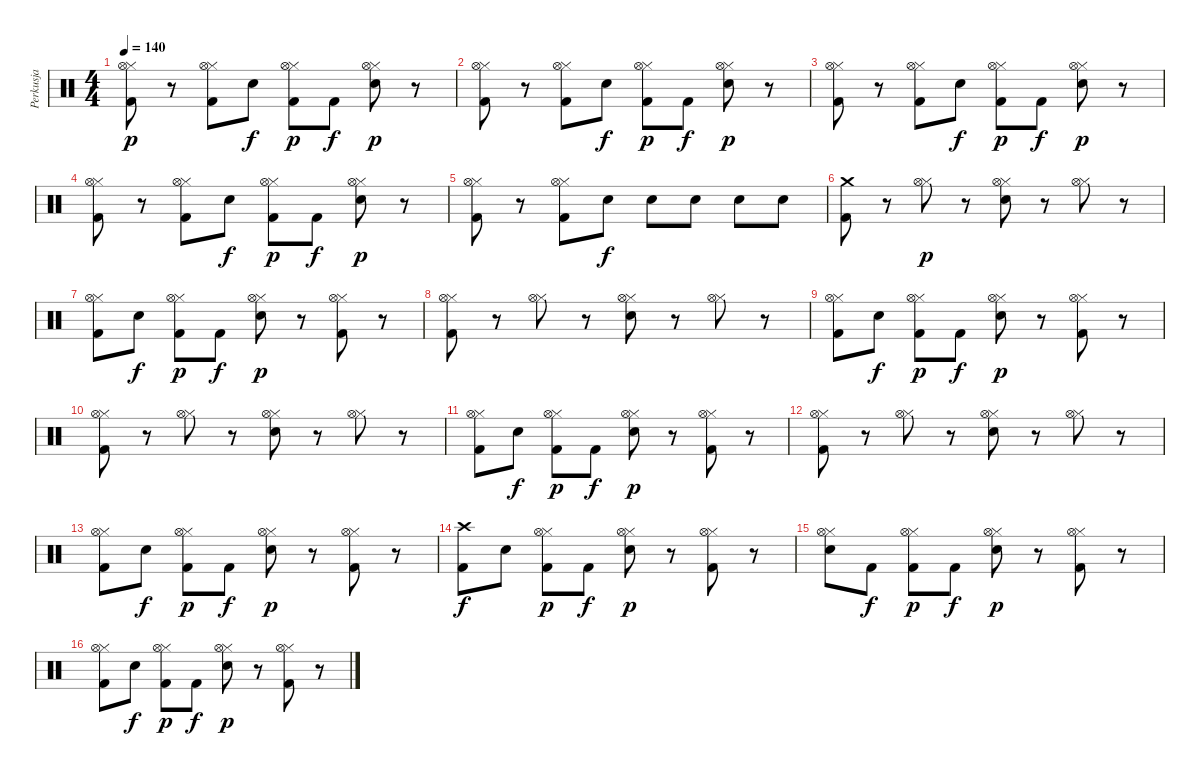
\track ("Perkusja" "Perkusja") {instrument percussion}
\staff {score}
\articulation defaults
\ts (4 4)
\tempo 140
\clef neutral
\ks c
("Kick (hit) 2" "Hi-Hat (closed)" "Hi-Hat (open)").8{dy p} r.8 ("Kick (hit) 2" "Hi-Hat (closed)" "Hi-Hat (open)").8 "Electric Snare (hit)".8{dy f} ("Kick (hit) 2" "Hi-Hat (closed)" "Hi-Hat (open)").8{dy p} "Kick (hit) 2".8{dy f} ("Electric Snare (hit)" "Hi-Hat (closed)" "Hi-Hat (open)").8{dy p} r.8 |
("Kick (hit) 2" "Hi-Hat (closed)" "Hi-Hat (open)").8 r.8 ("Kick (hit) 2" "Hi-Hat (closed)" "Hi-Hat (open)").8 "Electric Snare (hit)".8{dy f} ("Kick (hit) 2" "Hi-Hat (closed)" "Hi-Hat (open)").8{dy p} "Kick (hit) 2".8{dy f} ("Electric Snare (hit)" "Hi-Hat (closed)" "Hi-Hat (open)").8{dy p} r.8 |
("Kick (hit) 2" "Hi-Hat (closed)" "Hi-Hat (open)").8 r.8 ("Kick (hit) 2" "Hi-Hat (closed)" "Hi-Hat (open)").8 "Electric Snare (hit)".8{dy f} ("Kick (hit) 2" "Hi-Hat (closed)" "Hi-Hat (open)").8{dy p} "Kick (hit) 2".8{dy f} ("Electric Snare (hit)" "Hi-Hat (closed)" "Hi-Hat (open)").8{dy p} r.8 |
("Kick (hit) 2" "Hi-Hat (closed)" "Hi-Hat (open)").8 r.8 ("Kick (hit) 2" "Hi-Hat (closed)" "Hi-Hat (open)").8 "Electric Snare (hit)".8{dy f} ("Kick (hit) 2" "Hi-Hat (closed)" "Hi-Hat (open)").8{dy p} "Kick (hit) 2".8{dy f} ("Electric Snare (hit)" "Hi-Hat (closed)" "Hi-Hat (open)").8{dy p} r.8 |
("Kick (hit) 2" "Hi-Hat (closed)" "Hi-Hat (open)").8 r.8 ("Kick (hit) 2" "Hi-Hat (closed)" "Hi-Hat (open)").8 "Electric Snare (hit)".8{dy f} "Electric Snare (hit)".8 "Electric Snare (hit)".8 "Electric Snare (hit)".8 "Electric Snare (hit)".8 |
("Kick (hit) 2" "Crash medium (hit)").8 r.8 ("Hi-Hat (closed)" "Hi-Hat (open)").8{dy p} r.8 ("Electric Snare (hit)" "Hi-Hat (closed)" "Hi-Hat (open)").8 r.8 ("Hi-Hat (closed)" "Hi-Hat (open)").8 r.8 |
("Kick (hit) 2" "Hi-Hat (closed)" "Hi-Hat (open)").8 "Electric Snare (hit)".8{dy f} ("Kick (hit) 2" "Hi-Hat (closed)" "Hi-Hat (open)").8{dy p} "Kick (hit) 2".8{dy f} ("Electric Snare (hit)" "Hi-Hat (closed)" "Hi-Hat (open)").8{dy p} r.8 ("Kick (hit) 2" "Hi-Hat (closed)" "Hi-Hat (open)").8 r.8 |
("Kick (hit) 2" "Hi-Hat (closed)" "Hi-Hat (open)").8 r.8 ("Hi-Hat (closed)" "Hi-Hat (open)").8 r.8 ("Electric Snare (hit)" "Hi-Hat (closed)" "Hi-Hat (open)").8 r.8 ("Hi-Hat (closed)" "Hi-Hat (open)").8 r.8 |
("Kick (hit) 2" "Hi-Hat (closed)" "Hi-Hat (open)").8 "Electric Snare (hit)".8{dy f} ("Kick (hit) 2" "Hi-Hat (closed)" "Hi-Hat (open)").8{dy p} "Kick (hit) 2".8{dy f} ("Electric Snare (hit)" "Hi-Hat (closed)" "Hi-Hat (open)").8{dy p} r.8 ("Kick (hit) 2" "Hi-Hat (closed)" "Hi-Hat (open)").8 r.8 |
("Kick (hit) 2" "Hi-Hat (closed)" "Hi-Hat (open)").8 r.8 ("Hi-Hat (closed)" "Hi-Hat (open)").8 r.8 ("Electric Snare (hit)" "Hi-Hat (closed)" "Hi-Hat (open)").8 r.8 ("Hi-Hat (closed)" "Hi-Hat (open)").8 r.8 |
("Kick (hit) 2" "Hi-Hat (closed)" "Hi-Hat (open)").8 "Electric Snare (hit)".8{dy f} ("Kick (hit) 2" "Hi-Hat (closed)" "Hi-Hat (open)").8{dy p} "Kick (hit) 2".8{dy f} ("Electric Snare (hit)" "Hi-Hat (closed)" "Hi-Hat (open)").8{dy p} r.8 ("Kick (hit) 2" "Hi-Hat (closed)" "Hi-Hat (open)").8 r.8 |
("Kick (hit) 2" "Hi-Hat (closed)" "Hi-Hat (open)").8 r.8 ("Hi-Hat (closed)" "Hi-Hat (open)").8 r.8 ("Electric Snare (hit)" "Hi-Hat (closed)" "Hi-Hat (open)").8 r.8 ("Hi-Hat (closed)" "Hi-Hat (open)").8 r.8 |
("Kick (hit) 2" "Hi-Hat (closed)" "Hi-Hat (open)").8 "Electric Snare (hit)".8{dy f} ("Kick (hit) 2" "Hi-Hat (closed)" "Hi-Hat (open)").8{dy p} "Kick (hit) 2".8{dy f} ("Electric Snare (hit)" "Hi-Hat (closed)" "Hi-Hat (open)").8{dy p} r.8 ("Kick (hit) 2" "Hi-Hat (closed)" "Hi-Hat (open)").8 r.8 |
("Kick (hit) 2" "Crash high (hit)").8{dy f} "Electric Snare (hit)".8 ("Kick (hit) 2" "Hi-Hat (closed)" "Hi-Hat (open)").8{dy p} "Kick (hit) 2".8{dy f} ("Electric Snare (hit)" "Hi-Hat (closed)" "Hi-Hat (open)").8{dy p} r.8 ("Kick (hit) 2" "Hi-Hat (closed)" "Hi-Hat (open)").8 r.8 |
("Electric Snare (hit)" "Hi-Hat (closed)" "Hi-Hat (open)").8 "Kick (hit) 2".8{dy f} ("Kick (hit) 2" "Hi-Hat (closed)" "Hi-Hat (open)").8{dy p} "Kick (hit) 2".8{dy f} ("Electric Snare (hit)" "Hi-Hat (closed)" "Hi-Hat (open)").8{dy p} r.8 ("Kick (hit) 2" "Hi-Hat (closed)" "Hi-Hat (open)").8 r.8 |
("Kick (hit) 2" "Hi-Hat (closed)" "Hi-Hat (open)").8 "Electric Snare (hit)".8{dy f} ("Kick (hit) 2" "Hi-Hat (closed)" "Hi-Hat (open)").8{dy p} "Kick (hit) 2".8{dy f} ("Electric Snare (hit)" "Hi-Hat (closed)" "Hi-Hat (open)").8{dy p} r.8 ("Kick (hit) 2" "Hi-Hat (closed)" "Hi-Hat (open)").8 r.8
